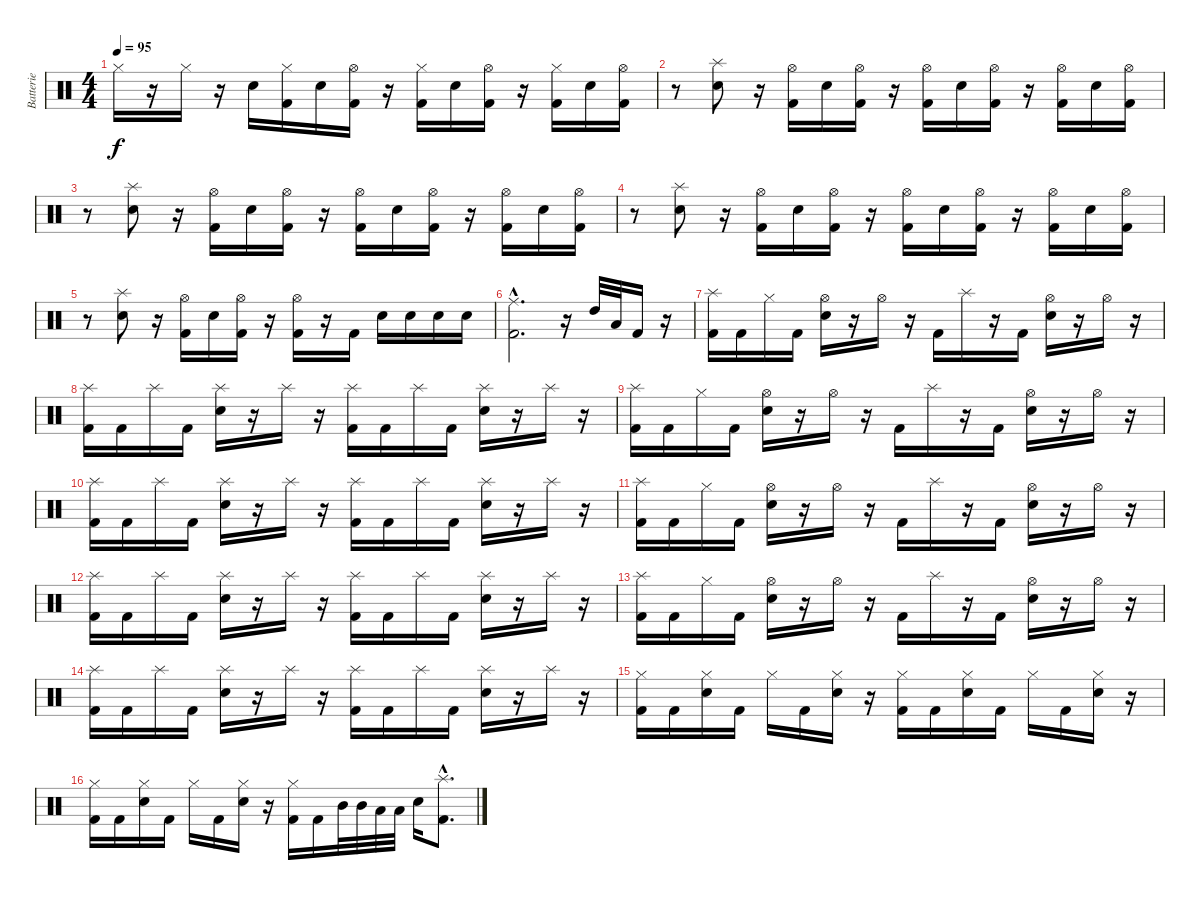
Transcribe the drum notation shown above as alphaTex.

\track ("Batterie" "Batterie") {instrument percussion}
\staff {score}
\articulation defaults
\ts (4 4)
\tempo 95
\clef neutral
\ks c "Hi-Hat (closed)".16{dy f}
r.16 "Hi-Hat (closed)".16 r.16 "Electric Snare (hit)".16 ("Hi-Hat (closed)" "Kick (hit) 2").16 "Electric Snare (hit)".16 ("Hi-Hat (open)" "Kick (hit) 2").16 r.16 ("Hi-Hat (closed)" "Kick (hit) 2").16 "Electric Snare (hit)".16 ("Hi-Hat (open)" "Kick (hit) 2").16 r.16 ("Hi-Hat (closed)" "Kick (hit) 2").16 "Electric Snare (hit)".16 ("Hi-Hat (open)" "Kick (hit) 2").16 |
r.8 ("Splash (hit)" "Electric Snare (hit)").8 r.16 ("Hi-Hat (open)" "Kick (hit) 2").16 "Electric Snare (hit)".16 ("Hi-Hat (open)" "Kick (hit) 2").16 r.16 ("Hi-Hat (open)" "Kick (hit) 2").16 "Electric Snare (hit)".16 ("Hi-Hat (open)" "Kick (hit) 2").16 r.16 ("Hi-Hat (open)" "Kick (hit) 2").16 "Electric Snare (hit)".16 ("Hi-Hat (open)" "Kick (hit) 2").16 |
r.8 ("Splash (hit)" "Electric Snare (hit)").8 r.16 ("Hi-Hat (open)" "Kick (hit) 2").16 "Electric Snare (hit)".16 ("Hi-Hat (open)" "Kick (hit) 2").16 r.16 ("Hi-Hat (open)" "Kick (hit) 2").16 "Electric Snare (hit)".16 ("Hi-Hat (open)" "Kick (hit) 2").16 r.16 ("Hi-Hat (open)" "Kick (hit) 2").16 "Electric Snare (hit)".16 ("Hi-Hat (open)" "Kick (hit) 2").16 |
r.8 ("Splash (hit)" "Electric Snare (hit)").8 r.16 ("Hi-Hat (open)" "Kick (hit) 2").16 "Electric Snare (hit)".16 ("Hi-Hat (open)" "Kick (hit) 2").16 r.16 ("Hi-Hat (open)" "Kick (hit) 2").16 "Electric Snare (hit)".16 ("Hi-Hat (open)" "Kick (hit) 2").16 r.16 ("Hi-Hat (open)" "Kick (hit) 2").16 "Electric Snare (hit)".16 ("Hi-Hat (open)" "Kick (hit) 2").16 |
r.8 ("Splash (hit)" "Electric Snare (hit)").8 r.16 ("Hi-Hat (open)" "Kick (hit) 2").16 "Electric Snare (hit)".16 ("Hi-Hat (open)" "Kick (hit) 2").16 r.16 ("Hi-Hat (open)" "Kick (hit) 2").16 r.16 "Kick (hit) 2".16 "Electric Snare (hit)".16 "Electric Snare (hit)".16 "Electric Snare (hit)".16 "Electric Snare (hit)".16 |
("Ride (middle)"{hac} "Kick (hit) 2"{hac}).2{d} r.16 "High Tom (hit)".32 "Low Floor Tom (hit)".32 "Kick (hit) 2".16 r.16 |
("Splash (hit)" "Kick (hit) 2").16 "Kick (hit) 2".16 "Hi-Hat (closed)".16 "Kick (hit) 2".16 ("Hi-Hat (open)" "Electric Snare (hit)").16 r.16 "Hi-Hat (open)".16 r.16 "Kick (hit) 2".16 "Splash (hit)".16 r.16 "Kick (hit) 2".16 ("Hi-Hat (open)" "Electric Snare (hit)").16 r.16 "Hi-Hat (open)".16 r.16 |
("Splash (hit)" "Kick (hit) 2").16 "Kick (hit) 2".16 "Splash (hit)".16 "Kick (hit) 2".16 ("Splash (hit)" "Electric Snare (hit)").16 r.16 "Splash (hit)".16 r.16 ("Splash (hit)" "Kick (hit) 2").16 "Kick (hit) 2".16 "Splash (hit)".16 "Kick (hit) 2".16 ("Splash (hit)" "Electric Snare (hit)").16 r.16 "Splash (hit)".16 r.16 |
("Splash (hit)" "Kick (hit) 2").16 "Kick (hit) 2".16 "Hi-Hat (closed)".16 "Kick (hit) 2".16 ("Hi-Hat (open)" "Electric Snare (hit)").16 r.16 "Hi-Hat (open)".16 r.16 "Kick (hit) 2".16 "Splash (hit)".16 r.16 "Kick (hit) 2".16 ("Hi-Hat (open)" "Electric Snare (hit)").16 r.16 "Hi-Hat (open)".16 r.16 |
("Splash (hit)" "Kick (hit) 2").16 "Kick (hit) 2".16 "Splash (hit)".16 "Kick (hit) 2".16 ("Splash (hit)" "Electric Snare (hit)").16 r.16 "Splash (hit)".16 r.16 ("Splash (hit)" "Kick (hit) 2").16 "Kick (hit) 2".16 "Splash (hit)".16 "Kick (hit) 2".16 ("Splash (hit)" "Electric Snare (hit)").16 r.16 "Splash (hit)".16 r.16 |
("Splash (hit)" "Kick (hit) 2").16 "Kick (hit) 2".16 "Hi-Hat (closed)".16 "Kick (hit) 2".16 ("Hi-Hat (open)" "Electric Snare (hit)").16 r.16 "Hi-Hat (open)".16 r.16 "Kick (hit) 2".16 "Splash (hit)".16 r.16 "Kick (hit) 2".16 ("Hi-Hat (open)" "Electric Snare (hit)").16 r.16 "Hi-Hat (open)".16 r.16 |
("Splash (hit)" "Kick (hit) 2").16 "Kick (hit) 2".16 "Splash (hit)".16 "Kick (hit) 2".16 ("Splash (hit)" "Electric Snare (hit)").16 r.16 "Splash (hit)".16 r.16 ("Splash (hit)" "Kick (hit) 2").16 "Kick (hit) 2".16 "Splash (hit)".16 "Kick (hit) 2".16 ("Splash (hit)" "Electric Snare (hit)").16 r.16 "Splash (hit)".16 r.16 |
("Splash (hit)" "Kick (hit) 2").16 "Kick (hit) 2".16 "Hi-Hat (closed)".16 "Kick (hit) 2".16 ("Hi-Hat (open)" "Electric Snare (hit)").16 r.16 "Hi-Hat (open)".16 r.16 "Kick (hit) 2".16 "Splash (hit)".16 r.16 "Kick (hit) 2".16 ("Hi-Hat (open)" "Electric Snare (hit)").16 r.16 "Hi-Hat (open)".16 r.16 |
("Splash (hit)" "Kick (hit) 2").16 "Kick (hit) 2".16 "Splash (hit)".16 "Kick (hit) 2".16 ("Splash (hit)" "Electric Snare (hit)").16 r.16 "Splash (hit)".16 r.16 ("Splash (hit)" "Kick (hit) 2").16 "Kick (hit) 2".16 "Splash (hit)".16 "Kick (hit) 2".16 ("Splash (hit)" "Electric Snare (hit)").16 r.16 "Splash (hit)".16 r.16 |
("Hi-Hat (closed)" "Kick (hit) 2").16 "Kick (hit) 2".16 ("Hi-Hat (closed)" "Electric Snare (hit)").16 "Kick (hit) 2".16 "Hi-Hat (closed)".16 "Kick (hit) 2".16 ("Hi-Hat (closed)" "Electric Snare (hit)").16 r.16 ("Hi-Hat (closed)" "Kick (hit) 2").16 "Kick (hit) 2".16 ("Hi-Hat (closed)" "Electric Snare (hit)").16 "Kick (hit) 2".16 "Hi-Hat (closed)".16 "Kick (hit) 2".16 ("Hi-Hat (closed)" "Electric Snare (hit)").16 r.16 |
("Hi-Hat (closed)" "Kick (hit) 2").16 "Kick (hit) 2".16 ("Hi-Hat (closed)" "Electric Snare (hit)").16 "Kick (hit) 2".16 "Hi-Hat (closed)".16 "Kick (hit) 2".16 ("Hi-Hat (closed)" "Electric Snare (hit)").16 r.16 ("Hi-Hat (closed)" "Kick (hit) 2").16 "Kick (hit) 2".16 "Mid Tom (hit)".32 "Mid Tom (hit)".32 "Low Tom (hit)".32 "Low Tom (hit)".32 "Electric Snare (hit)".16 ("Splash (hit)"{hac} "Kick (hit) 2"{hac}).8{d}
